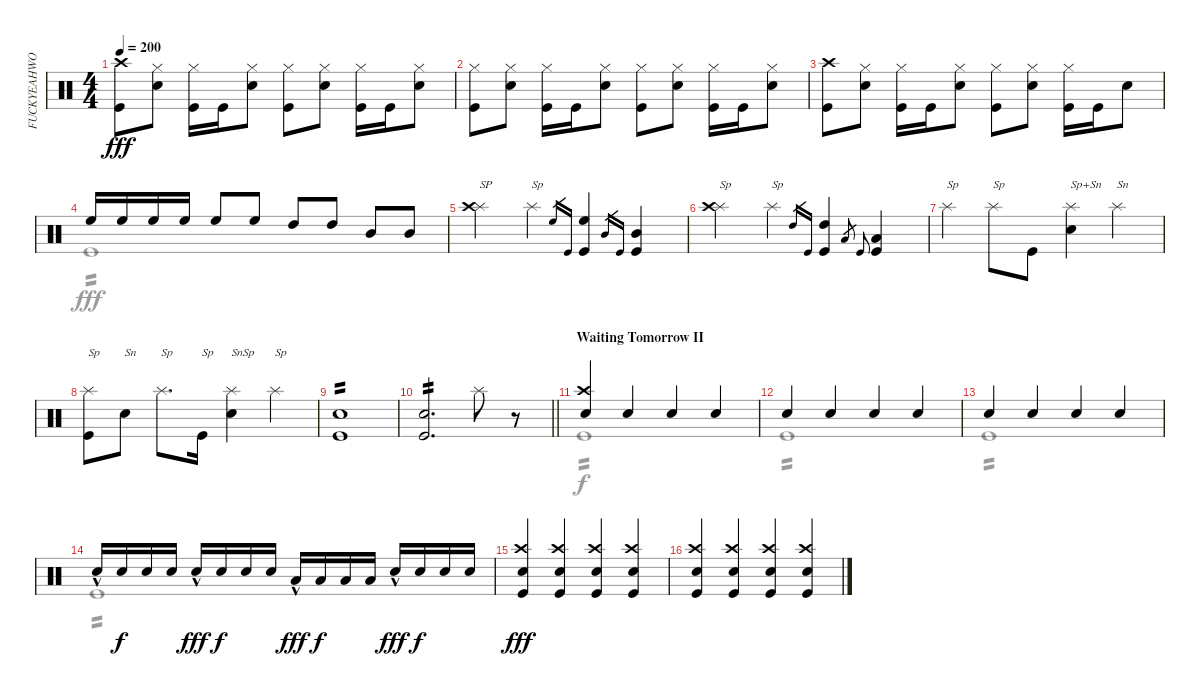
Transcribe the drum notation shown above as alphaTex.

\track ("FUCKYEAHWOOTDAVEMACKINTOSH!(Percussion)" "FUCKYEAHWO") {instrument percussion}
\staff {score}
\articulation defaults
\voice
\ts (4 4)
\tempo 200
\clef neutral
\ks c
("Kick (hit)" "Crash high (hit)").8{dy fff} ("Snare (hit) 2" "Hi-Hat (closed)").8 ("Kick (hit)" "Hi-Hat (closed)").16 "Kick (hit)".16 ("Snare (hit) 2" "Hi-Hat (closed)").8 ("Kick (hit)" "Hi-Hat (closed)").8 ("Snare (hit) 2" "Hi-Hat (closed)").8 ("Kick (hit)" "Hi-Hat (closed)").16 "Kick (hit)".16 ("Snare (hit) 2" "Hi-Hat (closed)").8 |
("Kick (hit)" "Hi-Hat (closed)").8 ("Snare (hit) 2" "Hi-Hat (closed)").8 ("Kick (hit)" "Hi-Hat (closed)").16 "Kick (hit)".16 ("Snare (hit) 2" "Hi-Hat (closed)").8 ("Kick (hit)" "Hi-Hat (closed)").8 ("Snare (hit) 2" "Hi-Hat (closed)").8 ("Kick (hit)" "Hi-Hat (closed)").16 "Kick (hit)".16 ("Snare (hit) 2" "Hi-Hat (closed)").8 |
("Kick (hit)" "Crash high (hit)").8 ("Snare (hit) 2" "Hi-Hat (closed)").8 ("Kick (hit)" "Hi-Hat (closed)").16 "Kick (hit)".16 ("Snare (hit) 2" "Hi-Hat (closed)").8 ("Kick (hit)" "Hi-Hat (closed)").8 ("Snare (hit) 2" "Hi-Hat (closed)").8 ("Kick (hit)" "Hi-Hat (closed)").16 "Kick (hit)".16 "Snare (hit) 2".8 |
"High Floor Tom (hit)".16 "High Floor Tom (hit)".16 "High Floor Tom (hit)".16 "High Floor Tom (hit)".16 "High Floor Tom (hit)".8 "High Floor Tom (hit)".8 "High Tom (hit)".8 "High Tom (hit)".8 "Mid Tom (hit)".8 "Mid Tom (hit)".8 |
("Splash (hit)" "Crash high (hit)").4{txt "SP"} "Splash (hit)".4{txt "Sp"} "High Floor Tom (hit)".16{gr} "Kick (hit)".16{gr} ("High Floor Tom (hit)" "Kick (hit)").4 "Mid Tom (hit)".16{gr} "Kick (hit)".16{gr} ("Mid Tom (hit)" "Kick (hit)").4 |
("Splash (hit)" "Crash high (hit)").4{txt "Sp"} "Splash (hit)".4{txt "Sp"} "High Tom (hit)".16{gr} "Kick (hit)".16{gr} ("High Tom (hit)" "Kick (hit)").4 "Low Tom (hit)".16{gr} "Kick (hit)".16{gr onbeat} ("Low Tom (hit)" "Kick (hit)").4 |
"Splash (hit)".4{txt "Sp"} "Splash (hit)".8{txt "Sp"} "Kick (hit)".8 ("Snare (hit) 2" "Splash (hit)").4{txt "Sp+Sn"} "Splash (hit)".4{txt "Sn"} |
("Kick (hit)" "Splash (hit)").8{txt "Sp"} "Snare (hit) 2".8{txt "Sn"} "Splash (hit)".8{d txt "Sp"} "Kick (hit)".16{txt "Sp"} ("Snare (hit) 2" "Splash (hit)").4{txt "SnSp"} "Splash (hit)".4{txt "Sp"} |
("Kick (hit)" "Snare (hit) 2").1{tp 2} |
\barLineRight lightlight
("Snare (hit) 2" "Kick (hit)").2{d tp 2} "Splash (hit)".8 r.8 |
\section ("" "Waiting Tomorrow II")
("Snare (hit) 2" "Crash high (hit)").4 "Snare (hit) 2".4 "Snare (hit) 2".4 "Snare (hit) 2".4 |
"Snare (hit) 2".4 "Snare (hit) 2".4 "Snare (hit) 2".4 "Snare (hit) 2".4 |
"Snare (hit) 2".4 "Snare (hit) 2".4 "Snare (hit) 2".4 "Snare (hit) 2".4 |
"Snare (hit) 2"{hac}.16 "Snare (hit) 2".16{dy f} "Snare (hit) 2".16 "Snare (hit) 2".16 "Snare (hit) 2"{hac}.16{dy fff} "Snare (hit) 2".16{dy f} "Snare (hit) 2".16 "Snare (hit) 2".16 "Low Tom (hit)"{hac}.16{dy fff} "Low Tom (hit)".16{dy f} "Low Tom (hit)".16 "Low Tom (hit)".16 "Snare (hit) 2"{hac}.16{dy fff} "Snare (hit) 2".16{dy f} "Snare (hit) 2".16 "Snare (hit) 2".16 |
("Kick (hit)" "Snare (hit) 2" "Crash high (hit)").4{dy fff} ("Kick (hit)" "Snare (hit) 2" "Crash high (hit)").4 ("Kick (hit)" "Snare (hit) 2" "Crash high (hit)").4 ("Kick (hit)" "Snare (hit) 2" "Crash high (hit)").4 |
("Kick (hit)" "Snare (hit) 2" "Crash high (hit)").4 ("Kick (hit)" "Snare (hit) 2" "Crash high (hit)").4 ("Kick (hit)" "Snare (hit) 2" "Crash high (hit)").4 ("Kick (hit)" "Snare (hit) 2" "Crash high (hit)").4
\voice
\clef neutral
\ottava regular
\simile none
\ks c
|
|
|
"Kick (hit)".1{tp 2} |
|
|
|
|
|
\barLineRight lightlight
|
"Kick (hit)".1{tp 2 dy f} |
"Kick (hit)".1{tp 2} |
"Kick (hit)".1{tp 2} |
"Kick (hit)".1{tp 2} |
|
